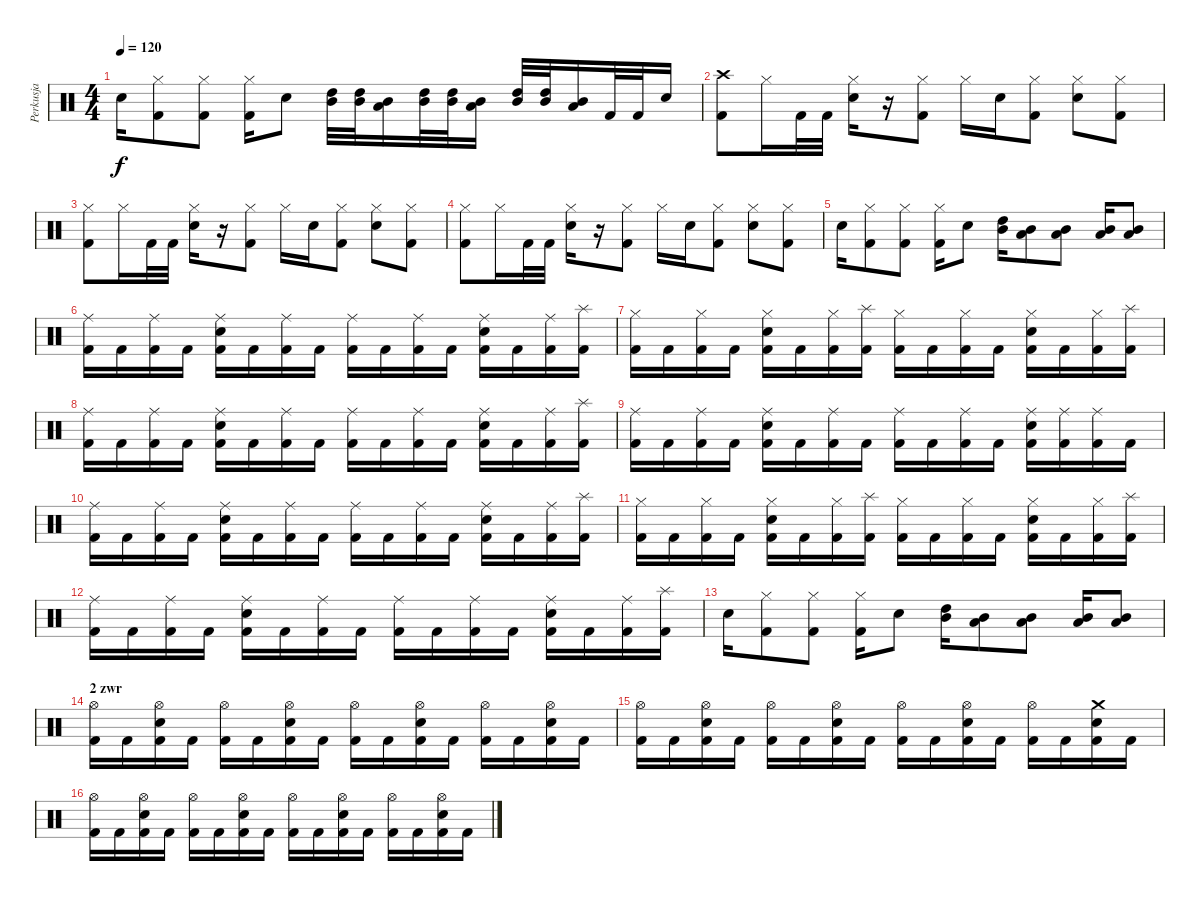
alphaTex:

\track ("Perkusja" "Perkusja") {instrument percussion}
\staff {score}
\articulation defaults
\ts (4 4)
\tempo 120
\clef neutral
\ks c "Snare (hit) 2".16{dy f}
("Hi-Hat (closed)" "Kick (hit) 2").8 ("Hi-Hat (closed)" "Kick (hit) 2").8 ("Hi-Hat (closed)" "Kick (hit) 2").16 "Snare (hit) 2".8 ("High Tom (hit)" "Mid Tom (hit)").32 ("High Tom (hit)" "Mid Tom (hit)").32 ("Low Tom (hit)" "Mid Tom (hit)").16 ("High Tom (hit)" "Mid Tom (hit)").32 ("High Tom (hit)" "Mid Tom (hit)").32 ("Low Tom (hit)" "Mid Tom (hit)").16 ("High Tom (hit)" "Mid Tom (hit)").32 ("High Tom (hit)" "Mid Tom (hit)").32 ("Low Tom (hit)" "Mid Tom (hit)").16 "Kick (hit) 2".32 "Kick (hit) 2".32 "Snare (hit) 2".16 |
("Crash high (hit)" "Kick (hit) 2").8 "Hi-Hat (closed)".16 "Kick (hit) 2".32 "Kick (hit) 2".32 ("Hi-Hat (closed)" "Snare (hit) 2").16 r.16 ("Hi-Hat (closed)" "Kick (hit) 2").8 "Hi-Hat (closed)".16 "Snare (hit) 2".16 ("Hi-Hat (closed)" "Kick (hit) 2").8 ("Hi-Hat (closed)" "Snare (hit) 2").8 ("Hi-Hat (closed)" "Kick (hit) 2").8 |
("Hi-Hat (closed)" "Kick (hit) 2").8 "Hi-Hat (closed)".16 "Kick (hit) 2".32 "Kick (hit) 2".32 ("Hi-Hat (closed)" "Snare (hit) 2").16 r.16 ("Hi-Hat (closed)" "Kick (hit) 2").8 "Hi-Hat (closed)".16 "Snare (hit) 2".16 ("Hi-Hat (closed)" "Kick (hit) 2").8 ("Hi-Hat (closed)" "Snare (hit) 2").8 ("Hi-Hat (closed)" "Kick (hit) 2").8 |
("Hi-Hat (closed)" "Kick (hit) 2").8 "Hi-Hat (closed)".16 "Kick (hit) 2".32 "Kick (hit) 2".32 ("Hi-Hat (closed)" "Snare (hit) 2").16 r.16 ("Hi-Hat (closed)" "Kick (hit) 2").8 "Hi-Hat (closed)".16 "Snare (hit) 2".16 ("Hi-Hat (closed)" "Kick (hit) 2").8 ("Hi-Hat (closed)" "Snare (hit) 2").8 ("Hi-Hat (closed)" "Kick (hit) 2").8 |
"Snare (hit) 2".16 ("Hi-Hat (closed)" "Kick (hit) 2").8 ("Hi-Hat (closed)" "Kick (hit) 2").8 ("Hi-Hat (closed)" "Kick (hit) 2").16 "Snare (hit) 2".8 ("High Tom (hit)" "Mid Tom (hit)").16 ("Low Tom (hit)" "Mid Tom (hit)").8 ("Low Tom (hit)" "Mid Tom (hit)").8 ("Low Tom (hit)" "Mid Tom (hit)").16 ("Low Tom (hit)" "Mid Tom (hit)").8 |
("Ride (middle)" "Kick (hit) 2").16 "Kick (hit) 2".16 ("Ride (middle)" "Kick (hit) 2").16 "Kick (hit) 2".16 ("Ride (middle)" "Snare (hit) 2" "Kick (hit) 2").16 "Kick (hit) 2".16 ("Ride (middle)" "Kick (hit) 2").16 "Kick (hit) 2".16 ("Ride (middle)" "Kick (hit) 2").16 "Kick (hit) 2".16 ("Ride (middle)" "Kick (hit) 2").16 "Kick (hit) 2".16 ("Ride (middle)" "Snare (hit) 2" "Kick (hit) 2").16 "Kick (hit) 2".16 ("Ride (middle)" "Kick (hit) 2").16 ("Splash (hit)" "Kick (hit) 2").16 |
("Hi-Hat (closed)" "Kick (hit) 2").16 "Kick (hit) 2".16 ("Hi-Hat (closed)" "Kick (hit) 2").16 "Kick (hit) 2".16 ("Hi-Hat (closed)" "Snare (hit) 2" "Kick (hit) 2").16 "Kick (hit) 2".16 ("Hi-Hat (closed)" "Kick (hit) 2").16 ("Splash (hit)" "Kick (hit) 2").16 ("Hi-Hat (closed)" "Kick (hit) 2").16 "Kick (hit) 2".16 ("Hi-Hat (closed)" "Kick (hit) 2").16 "Kick (hit) 2".16 ("Hi-Hat (closed)" "Snare (hit) 2" "Kick (hit) 2").16 "Kick (hit) 2".16 ("Hi-Hat (closed)" "Kick (hit) 2").16 ("Splash (hit)" "Kick (hit) 2").16 |
("Ride (middle)" "Kick (hit) 2").16 "Kick (hit) 2".16 ("Ride (middle)" "Kick (hit) 2").16 "Kick (hit) 2".16 ("Ride (middle)" "Snare (hit) 2" "Kick (hit) 2").16 "Kick (hit) 2".16 ("Ride (middle)" "Kick (hit) 2").16 "Kick (hit) 2".16 ("Ride (middle)" "Kick (hit) 2").16 "Kick (hit) 2".16 ("Ride (middle)" "Kick (hit) 2").16 "Kick (hit) 2".16 ("Ride (middle)" "Snare (hit) 2" "Kick (hit) 2").16 "Kick (hit) 2".16 ("Ride (middle)" "Kick (hit) 2").16 ("Splash (hit)" "Kick (hit) 2").16 |
("Ride (middle)" "Kick (hit) 2").16 "Kick (hit) 2".16 ("Ride (middle)" "Kick (hit) 2").16 "Kick (hit) 2".16 ("Ride (middle)" "Snare (hit) 2" "Kick (hit) 2").16 "Kick (hit) 2".16 ("Ride (middle)" "Kick (hit) 2").16 "Kick (hit) 2".16 ("Ride (middle)" "Kick (hit) 2").16 "Kick (hit) 2".16 ("Ride (middle)" "Kick (hit) 2").16 "Kick (hit) 2".16 ("Ride (middle)" "Snare (hit) 2" "Kick (hit) 2").16 ("Ride (middle)" "Kick (hit) 2").16 ("Ride (middle)" "Kick (hit) 2").16 "Kick (hit) 2".16 |
("Ride (middle)" "Kick (hit) 2").16 "Kick (hit) 2".16 ("Ride (middle)" "Kick (hit) 2").16 "Kick (hit) 2".16 ("Ride (middle)" "Snare (hit) 2" "Kick (hit) 2").16 "Kick (hit) 2".16 ("Ride (middle)" "Kick (hit) 2").16 "Kick (hit) 2".16 ("Ride (middle)" "Kick (hit) 2").16 "Kick (hit) 2".16 ("Ride (middle)" "Kick (hit) 2").16 "Kick (hit) 2".16 ("Ride (middle)" "Snare (hit) 2" "Kick (hit) 2").16 "Kick (hit) 2".16 ("Ride (middle)" "Kick (hit) 2").16 ("Splash (hit)" "Kick (hit) 2").16 |
("Hi-Hat (closed)" "Kick (hit) 2").16 "Kick (hit) 2".16 ("Hi-Hat (closed)" "Kick (hit) 2").16 "Kick (hit) 2".16 ("Hi-Hat (closed)" "Snare (hit) 2" "Kick (hit) 2").16 "Kick (hit) 2".16 ("Hi-Hat (closed)" "Kick (hit) 2").16 ("Splash (hit)" "Kick (hit) 2").16 ("Hi-Hat (closed)" "Kick (hit) 2").16 "Kick (hit) 2".16 ("Hi-Hat (closed)" "Kick (hit) 2").16 "Kick (hit) 2".16 ("Hi-Hat (closed)" "Snare (hit) 2" "Kick (hit) 2").16 "Kick (hit) 2".16 ("Hi-Hat (closed)" "Kick (hit) 2").16 ("Splash (hit)" "Kick (hit) 2").16 |
("Ride (middle)" "Kick (hit) 2").16 "Kick (hit) 2".16 ("Ride (middle)" "Kick (hit) 2").16 "Kick (hit) 2".16 ("Ride (middle)" "Snare (hit) 2" "Kick (hit) 2").16 "Kick (hit) 2".16 ("Ride (middle)" "Kick (hit) 2").16 "Kick (hit) 2".16 ("Ride (middle)" "Kick (hit) 2").16 "Kick (hit) 2".16 ("Ride (middle)" "Kick (hit) 2").16 "Kick (hit) 2".16 ("Ride (middle)" "Snare (hit) 2" "Kick (hit) 2").16 "Kick (hit) 2".16 ("Ride (middle)" "Kick (hit) 2").16 ("Splash (hit)" "Kick (hit) 2").16 |
"Snare (hit) 2".16 ("Hi-Hat (closed)" "Kick (hit) 2").8 ("Hi-Hat (closed)" "Kick (hit) 2").8 ("Hi-Hat (closed)" "Kick (hit) 2").16 "Snare (hit) 2".8 ("High Tom (hit)" "Mid Tom (hit)").16 ("Low Tom (hit)" "Mid Tom (hit)").8 ("Low Tom (hit)" "Mid Tom (hit)").8 ("Low Tom (hit)" "Mid Tom (hit)").16 ("Low Tom (hit)" "Mid Tom (hit)").8 |
\section ("" "2 zwr")
("Hi-Hat (open)" "Kick (hit) 2").16 "Kick (hit) 2".16 ("Hi-Hat (open)" "Snare (hit) 2" "Kick (hit) 2").16 "Kick (hit) 2".16 ("Hi-Hat (open)" "Kick (hit) 2").16 "Kick (hit) 2".16 ("Hi-Hat (open)" "Snare (hit) 2" "Kick (hit) 2").16 "Kick (hit) 2".16 ("Hi-Hat (open)" "Kick (hit) 2").16 "Kick (hit) 2".16 ("Hi-Hat (open)" "Snare (hit) 2" "Kick (hit) 2").16 "Kick (hit) 2".16 ("Hi-Hat (open)" "Kick (hit) 2").16 "Kick (hit) 2".16 ("Hi-Hat (open)" "Snare (hit) 2" "Kick (hit) 2").16 "Kick (hit) 2".16 |
("Hi-Hat (open)" "Kick (hit) 2").16 "Kick (hit) 2".16 ("Hi-Hat (open)" "Snare (hit) 2" "Kick (hit) 2").16 "Kick (hit) 2".16 ("Hi-Hat (open)" "Kick (hit) 2").16 "Kick (hit) 2".16 ("Hi-Hat (open)" "Snare (hit) 2" "Kick (hit) 2").16 "Kick (hit) 2".16 ("Hi-Hat (open)" "Kick (hit) 2").16 "Kick (hit) 2".16 ("Hi-Hat (open)" "Snare (hit) 2" "Kick (hit) 2").16 "Kick (hit) 2".16 ("Hi-Hat (open)" "Kick (hit) 2").16 "Kick (hit) 2".16 ("Crash medium (hit)" "Snare (hit) 2" "Kick (hit) 2").16 "Kick (hit) 2".16 |
("Hi-Hat (open)" "Kick (hit) 2").16 "Kick (hit) 2".16 ("Hi-Hat (open)" "Snare (hit) 2" "Kick (hit) 2").16 "Kick (hit) 2".16 ("Hi-Hat (open)" "Kick (hit) 2").16 "Kick (hit) 2".16 ("Hi-Hat (open)" "Snare (hit) 2" "Kick (hit) 2").16 "Kick (hit) 2".16 ("Hi-Hat (open)" "Kick (hit) 2").16 "Kick (hit) 2".16 ("Hi-Hat (open)" "Snare (hit) 2" "Kick (hit) 2").16 "Kick (hit) 2".16 ("Hi-Hat (open)" "Kick (hit) 2").16 "Kick (hit) 2".16 ("Hi-Hat (open)" "Snare (hit) 2" "Kick (hit) 2").16 "Kick (hit) 2".16
